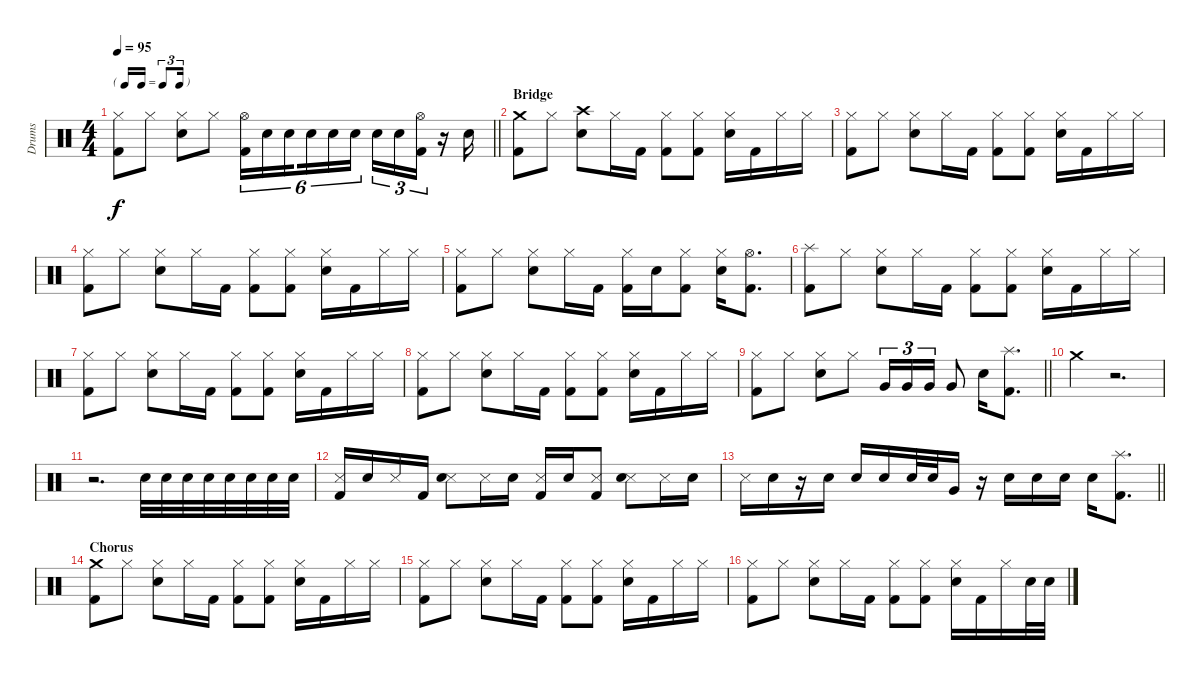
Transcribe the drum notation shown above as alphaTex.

\track ("Drums" "Drums") {instrument percussion}
\staff {score}
\articulation defaults
\ts (4 4)
\tf triplet16th
\tempo 95
\clef neutral
\barLineRight lightlight
\ks c
("Hi-Hat (closed)" "Kick (hit) 2").8{dy f} "Hi-Hat (closed)".8 ("Hi-Hat (closed)" "Snare (hit) 2").8 "Hi-Hat (closed)".8 ("Hi-Hat (open)" "Kick (hit) 2").16{tu (6 4)} "Snare (hit) 2".16{tu (6 4)} "Snare (hit) 2".16{tu (6 4) beam splitsecondary} "Snare (hit) 2".16{tu (6 4)} "Snare (hit) 2".16{tu (6 4)} "Snare (hit) 2".16{tu (6 4)} "Snare (hit) 2".16{tu (3 2)} "Snare (hit) 2".16{tu (3 2)} ("Hi-Hat (open)" "Kick (hit) 2").16{tu (3 2)} r.16 "Snare (hit) 2".16 |
\section ("" "Bridge")
("Crash medium (hit)" "Kick (hit) 2").8 "Hi-Hat (closed)".8 ("Crash high (hit)" "Snare (hit) 2").8 "Hi-Hat (closed)".16 "Kick (hit) 2".16 ("Hi-Hat (closed)" "Kick (hit) 2").8 ("Hi-Hat (closed)" "Kick (hit) 2").8 ("Hi-Hat (closed)" "Snare (hit) 2").16 "Kick (hit) 2".16 "Hi-Hat (closed)".16 "Hi-Hat (closed)".16 |
("Hi-Hat (closed)" "Kick (hit) 2").8 "Hi-Hat (closed)".8 ("Hi-Hat (closed)" "Snare (hit) 2").8 "Hi-Hat (closed)".16 "Kick (hit) 2".16 ("Hi-Hat (closed)" "Kick (hit) 2").8 ("Hi-Hat (closed)" "Kick (hit) 2").8 ("Hi-Hat (closed)" "Snare (hit) 2").16 "Kick (hit) 2".16 "Hi-Hat (closed)".16 "Hi-Hat (closed)".16 |
("Hi-Hat (closed)" "Kick (hit) 2").8 "Hi-Hat (closed)".8 ("Hi-Hat (closed)" "Snare (hit) 2").8 "Hi-Hat (closed)".16 "Kick (hit) 2".16 ("Hi-Hat (closed)" "Kick (hit) 2").8 ("Hi-Hat (closed)" "Kick (hit) 2").8 ("Hi-Hat (closed)" "Snare (hit) 2").16 "Kick (hit) 2".16 "Hi-Hat (closed)".16 "Hi-Hat (closed)".16 |
("Hi-Hat (closed)" "Kick (hit) 2").8 "Hi-Hat (closed)".8 ("Hi-Hat (closed)" "Snare (hit) 2").8 "Hi-Hat (closed)".16 "Kick (hit) 2".16 ("Hi-Hat (closed)" "Kick (hit) 2").16 "Snare (hit) 2".16 ("Hi-Hat (closed)" "Kick (hit) 2").8 ("Hi-Hat (closed)" "Snare (hit) 2").16 ("Hi-Hat (open)" "Kick (hit) 2").8{d} |
("Splash (hit)" "Kick (hit) 2").8 "Hi-Hat (closed)".8 ("Hi-Hat (closed)" "Snare (hit) 2").8 "Hi-Hat (closed)".16 "Kick (hit) 2".16 ("Hi-Hat (closed)" "Kick (hit) 2").8 ("Hi-Hat (closed)" "Kick (hit) 2").8 ("Hi-Hat (closed)" "Snare (hit) 2").16 "Kick (hit) 2".16 "Hi-Hat (closed)".16 "Hi-Hat (closed)".16 |
("Hi-Hat (closed)" "Kick (hit) 2").8 "Hi-Hat (closed)".8 ("Hi-Hat (closed)" "Snare (hit) 2").8 "Hi-Hat (closed)".16 "Kick (hit) 2".16 ("Hi-Hat (closed)" "Kick (hit) 2").8 ("Hi-Hat (closed)" "Kick (hit) 2").8 ("Hi-Hat (closed)" "Snare (hit) 2").16 "Kick (hit) 2".16 "Hi-Hat (closed)".16 "Hi-Hat (closed)".16 |
("Hi-Hat (closed)" "Kick (hit) 2").8 "Hi-Hat (closed)".8 ("Hi-Hat (closed)" "Snare (hit) 2").8 "Hi-Hat (closed)".16 "Kick (hit) 2".16 ("Hi-Hat (closed)" "Kick (hit) 2").8 ("Hi-Hat (closed)" "Kick (hit) 2").8 ("Hi-Hat (closed)" "Snare (hit) 2").16 "Kick (hit) 2".16 "Hi-Hat (closed)".16 "Hi-Hat (closed)".16 |
\barLineRight lightlight
("Hi-Hat (closed)" "Kick (hit) 2").8 "Hi-Hat (closed)".8 ("Hi-Hat (closed)" "Snare (hit) 2").8 "Hi-Hat (closed)".8 "Very Low Tom (hit)".16{tu (3 2)} "Very Low Tom (hit)".16{tu (3 2)} "Very Low Tom (hit)".16{tu (3 2)} "Very Low Tom (hit)".8 "Snare (hit) 2".16 ("Splash (hit)" "Kick (hit) 2").8{d} |
"Crash medium (hit)".4 r.2{d} |
r.2{d} "Snare (hit) 2".32 "Snare (hit) 2".32 "Snare (hit) 2".32 "Snare (hit) 2".32 "Snare (hit) 2".32 "Snare (hit) 2".32 "Snare (hit) 2".32 "Snare (hit) 2".32 |
("Snare (side stick) 3" "Kick (hit) 2").16 "Snare (hit) 2".16 "Snare (side stick) 3".16 "Kick (hit) 2".16 ("Snare (side stick) 3" "Snare (hit) 2").8 "Snare (side stick) 3".16 "Snare (hit) 2".16 ("Snare (side stick) 3" "Kick (hit) 2").16 "Snare (hit) 2".16 ("Snare (side stick) 3" "Kick (hit) 2").8 ("Snare (side stick) 3" "Snare (hit) 2").8 "Snare (side stick) 3".16 "Snare (hit) 2".16 |
\barLineRight lightlight "Snare (side stick) 3".16 "Snare (hit) 2".16
r.16 "Snare (hit) 2".16 "Snare (hit) 2".16 "Snare (hit) 2".16 "Snare (hit) 2".32 "Snare (hit) 2".32 "Very Low Tom (hit)".16 r.16 "Snare (hit) 2".16 "Snare (hit) 2".16 "Snare (hit) 2".16 "Snare (hit) 2".16 ("Splash (hit)" "Kick (hit) 2").8{d} |
\section ("" "Chorus")
("Crash medium (hit)" "Kick (hit) 2").8 "Hi-Hat (closed)".8 ("Hi-Hat (closed)" "Snare (hit) 2").8 "Hi-Hat (closed)".16 "Kick (hit) 2".16 ("Hi-Hat (closed)" "Kick (hit) 2").8 ("Hi-Hat (closed)" "Kick (hit) 2").8 ("Hi-Hat (closed)" "Snare (hit) 2").16 "Kick (hit) 2".16 "Hi-Hat (closed)".16 "Hi-Hat (closed)".16 |
("Hi-Hat (closed)" "Kick (hit) 2").8 "Hi-Hat (closed)".8 ("Hi-Hat (closed)" "Snare (hit) 2").8 "Hi-Hat (closed)".16 "Kick (hit) 2".16 ("Hi-Hat (closed)" "Kick (hit) 2").8 ("Hi-Hat (closed)" "Kick (hit) 2").8 ("Hi-Hat (closed)" "Snare (hit) 2").16 "Kick (hit) 2".16 "Hi-Hat (closed)".16 "Hi-Hat (closed)".16 |
("Hi-Hat (closed)" "Kick (hit) 2").8 "Hi-Hat (closed)".8 ("Hi-Hat (closed)" "Snare (hit) 2").8 "Hi-Hat (closed)".16 "Kick (hit) 2".16 ("Hi-Hat (closed)" "Kick (hit) 2").8 ("Hi-Hat (closed)" "Kick (hit) 2").8 ("Hi-Hat (closed)" "Snare (hit) 2").16 "Kick (hit) 2".16 "Hi-Hat (closed)".16 "Snare (hit) 2".32 "Snare (hit) 2".32
